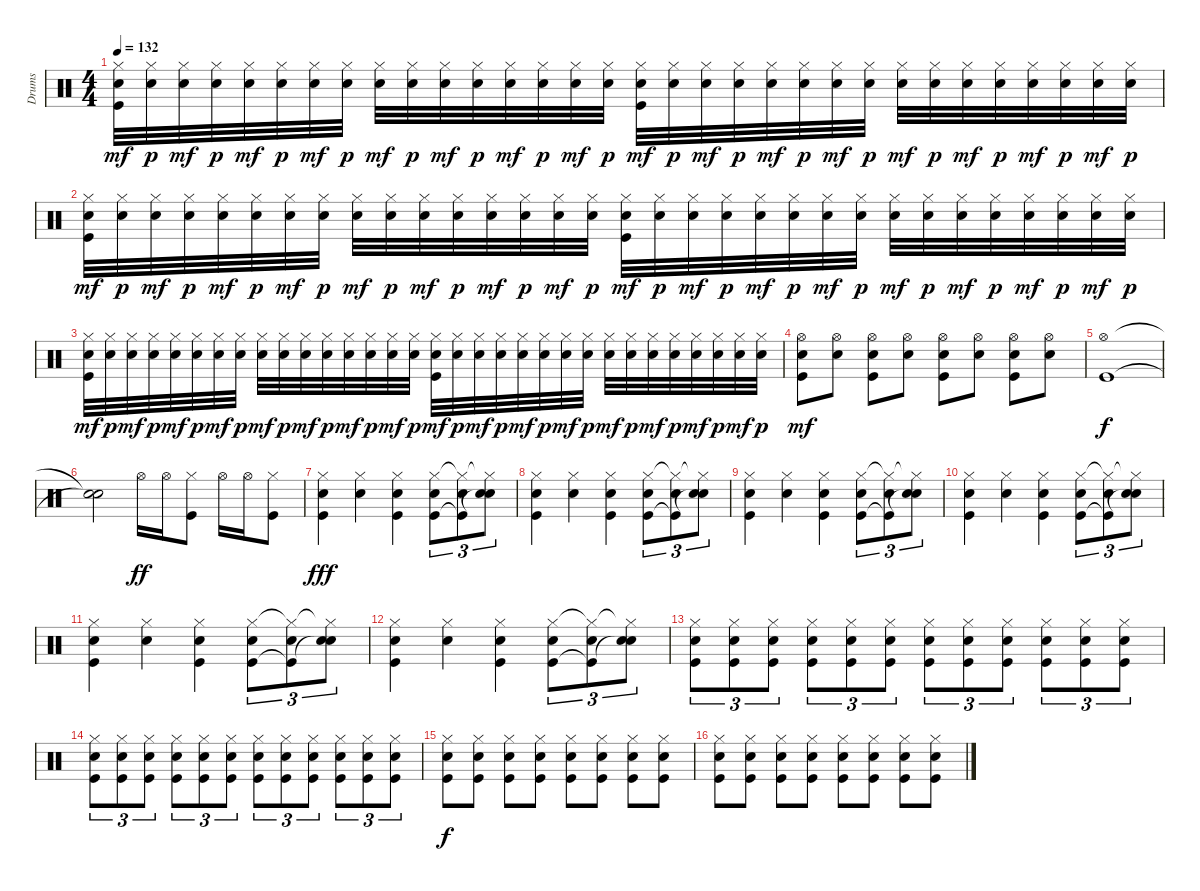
\track ("Drums" "Drums") {instrument percussion}
\staff {score}
\articulation defaults
\ts (4 4)
\tempo 132
\clef neutral
\ks c
("Hi-Hat (closed)" "Snare (hit) 2" "Kick (hit)").32{dy mf} ("Hi-Hat (closed)" "Snare (hit) 2").32{dy p} ("Hi-Hat (closed)" "Snare (hit) 2").32{dy mf} ("Hi-Hat (closed)" "Snare (hit) 2").32{dy p} ("Hi-Hat (closed)" "Snare (hit) 2").32{dy mf} ("Hi-Hat (closed)" "Snare (hit) 2").32{dy p} ("Hi-Hat (closed)" "Snare (hit) 2").32{dy mf} ("Hi-Hat (closed)" "Snare (hit) 2").32{dy p} ("Hi-Hat (closed)" "Snare (hit) 2").32{dy mf} ("Hi-Hat (closed)" "Snare (hit) 2").32{dy p} ("Hi-Hat (closed)" "Snare (hit) 2").32{dy mf} ("Hi-Hat (closed)" "Snare (hit) 2").32{dy p} ("Hi-Hat (closed)" "Snare (hit) 2").32{dy mf} ("Hi-Hat (closed)" "Snare (hit) 2").32{dy p} ("Hi-Hat (closed)" "Snare (hit) 2").32{dy mf} ("Hi-Hat (closed)" "Snare (hit) 2").32{dy p} ("Hi-Hat (closed)" "Snare (hit) 2" "Kick (hit)").32{dy mf} ("Hi-Hat (closed)" "Snare (hit) 2").32{dy p} ("Hi-Hat (closed)" "Snare (hit) 2").32{dy mf} ("Hi-Hat (closed)" "Snare (hit) 2").32{dy p} ("Hi-Hat (closed)" "Snare (hit) 2").32{dy mf} ("Hi-Hat (closed)" "Snare (hit) 2").32{dy p} ("Hi-Hat (closed)" "Snare (hit) 2").32{dy mf} ("Hi-Hat (closed)" "Snare (hit) 2").32{dy p} ("Hi-Hat (closed)" "Snare (hit) 2").32{dy mf} ("Hi-Hat (closed)" "Snare (hit) 2").32{dy p} ("Hi-Hat (closed)" "Snare (hit) 2").32{dy mf} ("Hi-Hat (closed)" "Snare (hit) 2").32{dy p} ("Hi-Hat (closed)" "Snare (hit) 2").32{dy mf} ("Hi-Hat (closed)" "Snare (hit) 2").32{dy p} ("Hi-Hat (closed)" "Snare (hit) 2").32{dy mf} ("Hi-Hat (closed)" "Snare (hit) 2").32{dy p} |
("Hi-Hat (closed)" "Snare (hit) 2" "Kick (hit)").32{dy mf} ("Hi-Hat (closed)" "Snare (hit) 2").32{dy p} ("Hi-Hat (closed)" "Snare (hit) 2").32{dy mf} ("Hi-Hat (closed)" "Snare (hit) 2").32{dy p} ("Hi-Hat (closed)" "Snare (hit) 2").32{dy mf} ("Hi-Hat (closed)" "Snare (hit) 2").32{dy p} ("Hi-Hat (closed)" "Snare (hit) 2").32{dy mf} ("Hi-Hat (closed)" "Snare (hit) 2").32{dy p} ("Hi-Hat (closed)" "Snare (hit) 2").32{dy mf} ("Hi-Hat (closed)" "Snare (hit) 2").32{dy p} ("Hi-Hat (closed)" "Snare (hit) 2").32{dy mf} ("Hi-Hat (closed)" "Snare (hit) 2").32{dy p} ("Hi-Hat (closed)" "Snare (hit) 2").32{dy mf} ("Hi-Hat (closed)" "Snare (hit) 2").32{dy p} ("Hi-Hat (closed)" "Snare (hit) 2").32{dy mf} ("Hi-Hat (closed)" "Snare (hit) 2").32{dy p} ("Hi-Hat (closed)" "Snare (hit) 2" "Kick (hit)").32{dy mf} ("Hi-Hat (closed)" "Snare (hit) 2").32{dy p} ("Hi-Hat (closed)" "Snare (hit) 2").32{dy mf} ("Hi-Hat (closed)" "Snare (hit) 2").32{dy p} ("Hi-Hat (closed)" "Snare (hit) 2").32{dy mf} ("Hi-Hat (closed)" "Snare (hit) 2").32{dy p} ("Hi-Hat (closed)" "Snare (hit) 2").32{dy mf} ("Hi-Hat (closed)" "Snare (hit) 2").32{dy p} ("Hi-Hat (closed)" "Snare (hit) 2").32{dy mf} ("Hi-Hat (closed)" "Snare (hit) 2").32{dy p} ("Hi-Hat (closed)" "Snare (hit) 2").32{dy mf} ("Hi-Hat (closed)" "Snare (hit) 2").32{dy p} ("Hi-Hat (closed)" "Snare (hit) 2").32{dy mf} ("Hi-Hat (closed)" "Snare (hit) 2").32{dy p} ("Hi-Hat (closed)" "Snare (hit) 2").32{dy mf} ("Hi-Hat (closed)" "Snare (hit) 2").32{dy p} |
("Hi-Hat (closed)" "Snare (hit) 2" "Kick (hit)").32{dy mf} ("Hi-Hat (closed)" "Snare (hit) 2").32{dy p} ("Hi-Hat (closed)" "Snare (hit) 2").32{dy mf} ("Hi-Hat (closed)" "Snare (hit) 2").32{dy p} ("Hi-Hat (closed)" "Snare (hit) 2").32{dy mf} ("Hi-Hat (closed)" "Snare (hit) 2").32{dy p} ("Hi-Hat (closed)" "Snare (hit) 2").32{dy mf} ("Hi-Hat (closed)" "Snare (hit) 2").32{dy p} ("Hi-Hat (closed)" "Snare (hit) 2").32{dy mf} ("Hi-Hat (closed)" "Snare (hit) 2").32{dy p} ("Hi-Hat (closed)" "Snare (hit) 2").32{dy mf} ("Hi-Hat (closed)" "Snare (hit) 2").32{dy p} ("Hi-Hat (closed)" "Snare (hit) 2").32{dy mf} ("Hi-Hat (closed)" "Snare (hit) 2").32{dy p} ("Hi-Hat (closed)" "Snare (hit) 2").32{dy mf} ("Hi-Hat (closed)" "Snare (hit) 2").32{dy p} ("Hi-Hat (closed)" "Snare (hit) 2" "Kick (hit)").32{dy mf} ("Hi-Hat (closed)" "Snare (hit) 2").32{dy p} ("Hi-Hat (closed)" "Snare (hit) 2").32{dy mf} ("Hi-Hat (closed)" "Snare (hit) 2").32{dy p} ("Hi-Hat (closed)" "Snare (hit) 2").32{dy mf} ("Hi-Hat (closed)" "Snare (hit) 2").32{dy p} ("Hi-Hat (closed)" "Snare (hit) 2").32{dy mf} ("Hi-Hat (closed)" "Snare (hit) 2").32{dy p} ("Hi-Hat (closed)" "Snare (hit) 2").32{dy mf} ("Hi-Hat (closed)" "Snare (hit) 2").32{dy p} ("Hi-Hat (closed)" "Snare (hit) 2").32{dy mf} ("Hi-Hat (closed)" "Snare (hit) 2").32{dy p} ("Hi-Hat (closed)" "Snare (hit) 2").32{dy mf} ("Hi-Hat (closed)" "Snare (hit) 2").32{dy p} ("Hi-Hat (closed)" "Snare (hit) 2").32{dy mf} ("Hi-Hat (closed)" "Snare (hit) 2").32{dy p} |
("Hi-Hat (open)" "Snare (hit) 2" "Kick (hit)").8{dy mf} ("Hi-Hat (open)" "Snare (hit) 2").8 ("Hi-Hat (open)" "Snare (hit) 2" "Kick (hit)").8 ("Hi-Hat (open)" "Snare (hit) 2").8 ("Hi-Hat (open)" "Snare (hit) 2" "Kick (hit)").8 ("Hi-Hat (open)" "Snare (hit) 2").8 ("Hi-Hat (open)" "Snare (hit) 2" "Kick (hit)").8 ("Hi-Hat (open)" "Snare (hit) 2").8 |
("Hi-Hat (open)" "Kick (hit)").1{dy f} |
("Snare (hit)"{t} "Snare (hit)"{t}).2 "Hi-Hat (open)".16{dy ff} "Hi-Hat (open)".16 ("Hi-Hat (closed)" "Kick (hit)").8 "Hi-Hat (open)".16 "Hi-Hat (open)".16 ("Hi-Hat (closed)" "Kick (hit)").8 |
("Hi-Hat (closed)" "Snare (hit) 2" "Kick (hit)").4{dy fff} ("Hi-Hat (closed)" "Snare (hit) 2").4 ("Hi-Hat (closed)" "Snare (hit) 2" "Kick (hit)").4 ("Hi-Hat (closed)" "Snare (hit) 2" "Kick (hit)").8{tu (3 2)} ("Hi-Hat (closed)"{t} "Snare (hit) 2" "Kick (hit)"{t}).8{tu (3 2)} ("Hi-Hat (closed)"{t} "Snare (hit) 2" "Snare (hit)"{t}).8{tu (3 2)} |
("Hi-Hat (closed)" "Snare (hit) 2" "Kick (hit)").4 ("Hi-Hat (closed)" "Snare (hit) 2").4 ("Hi-Hat (closed)" "Snare (hit) 2" "Kick (hit)").4 ("Hi-Hat (closed)" "Snare (hit) 2" "Kick (hit)").8{tu (3 2)} ("Hi-Hat (closed)"{t} "Snare (hit) 2" "Kick (hit)"{t}).8{tu (3 2)} ("Hi-Hat (closed)"{t} "Snare (hit) 2" "Snare (hit)"{t}).8{tu (3 2)} |
("Hi-Hat (closed)" "Snare (hit) 2" "Kick (hit)").4 ("Hi-Hat (closed)" "Snare (hit) 2").4 ("Hi-Hat (closed)" "Snare (hit) 2" "Kick (hit)").4 ("Hi-Hat (closed)" "Snare (hit) 2" "Kick (hit)").8{tu (3 2)} ("Hi-Hat (closed)"{t} "Snare (hit) 2" "Kick (hit)"{t}).8{tu (3 2)} ("Hi-Hat (closed)"{t} "Snare (hit) 2" "Snare (hit)"{t}).8{tu (3 2)} |
("Hi-Hat (closed)" "Snare (hit) 2" "Kick (hit)").4 ("Hi-Hat (closed)" "Snare (hit) 2").4 ("Hi-Hat (closed)" "Snare (hit) 2" "Kick (hit)").4 ("Hi-Hat (closed)" "Snare (hit) 2" "Kick (hit)").8{tu (3 2)} ("Hi-Hat (closed)"{t} "Snare (hit) 2" "Kick (hit)"{t}).8{tu (3 2)} ("Hi-Hat (closed)"{t} "Snare (hit) 2" "Snare (hit)"{t}).8{tu (3 2)} |
("Hi-Hat (closed)" "Snare (hit) 2" "Kick (hit)").4 ("Hi-Hat (closed)" "Snare (hit) 2").4 ("Hi-Hat (closed)" "Snare (hit) 2" "Kick (hit)").4 ("Hi-Hat (closed)" "Snare (hit) 2" "Kick (hit)").8{tu (3 2)} ("Hi-Hat (closed)"{t} "Snare (hit) 2" "Kick (hit)"{t}).8{tu (3 2)} ("Hi-Hat (closed)"{t} "Snare (hit) 2" "Snare (hit)"{t}).8{tu (3 2)} |
("Hi-Hat (closed)" "Snare (hit) 2" "Kick (hit)").4 ("Hi-Hat (closed)" "Snare (hit) 2").4 ("Hi-Hat (closed)" "Snare (hit) 2" "Kick (hit)").4 ("Hi-Hat (closed)" "Snare (hit) 2" "Kick (hit)").8{tu (3 2)} ("Hi-Hat (closed)"{t} "Snare (hit) 2" "Kick (hit)"{t}).8{tu (3 2)} ("Hi-Hat (closed)"{t} "Snare (hit) 2" "Snare (hit)"{t}).8{tu (3 2)} |
("Hi-Hat (closed)" "Snare (hit) 2" "Kick (hit)").8{tu (3 2)} ("Hi-Hat (closed)" "Snare (hit) 2" "Kick (hit)").8{tu (3 2)} ("Hi-Hat (closed)" "Snare (hit) 2" "Kick (hit)").8{tu (3 2)} ("Hi-Hat (closed)" "Snare (hit) 2" "Kick (hit)").8{tu (3 2)} ("Hi-Hat (closed)" "Snare (hit) 2" "Kick (hit)").8{tu (3 2)} ("Hi-Hat (closed)" "Snare (hit) 2" "Kick (hit)").8{tu (3 2)} ("Hi-Hat (closed)" "Snare (hit) 2" "Kick (hit)").8{tu (3 2)} ("Hi-Hat (closed)" "Snare (hit) 2" "Kick (hit)").8{tu (3 2)} ("Hi-Hat (closed)" "Snare (hit) 2" "Kick (hit)").8{tu (3 2)} ("Hi-Hat (closed)" "Snare (hit) 2" "Kick (hit)").8{tu (3 2)} ("Hi-Hat (closed)" "Snare (hit) 2" "Kick (hit)").8{tu (3 2)} ("Hi-Hat (closed)" "Snare (hit) 2" "Kick (hit)").8{tu (3 2)} |
("Hi-Hat (closed)" "Snare (hit) 2" "Kick (hit)").8{tu (3 2)} ("Hi-Hat (closed)" "Snare (hit) 2" "Kick (hit)").8{tu (3 2)} ("Hi-Hat (closed)" "Snare (hit) 2" "Kick (hit)").8{tu (3 2)} ("Hi-Hat (closed)" "Snare (hit) 2" "Kick (hit)").8{tu (3 2)} ("Hi-Hat (closed)" "Snare (hit) 2" "Kick (hit)").8{tu (3 2)} ("Hi-Hat (closed)" "Snare (hit) 2" "Kick (hit)").8{tu (3 2)} ("Hi-Hat (closed)" "Snare (hit) 2" "Kick (hit)").8{tu (3 2)} ("Hi-Hat (closed)" "Snare (hit) 2" "Kick (hit)").8{tu (3 2)} ("Hi-Hat (closed)" "Snare (hit) 2" "Kick (hit)").8{tu (3 2)} ("Hi-Hat (closed)" "Snare (hit) 2" "Kick (hit)").8{tu (3 2)} ("Hi-Hat (closed)" "Snare (hit) 2" "Kick (hit)").8{tu (3 2)} ("Hi-Hat (closed)" "Snare (hit) 2" "Kick (hit)").8{tu (3 2)} |
("Hi-Hat (closed)" "Snare (hit) 2" "Kick (hit)").8{dy f} ("Hi-Hat (closed)" "Snare (hit) 2" "Kick (hit)").8 ("Hi-Hat (closed)" "Snare (hit) 2" "Kick (hit)").8 ("Hi-Hat (closed)" "Snare (hit) 2" "Kick (hit)").8 ("Hi-Hat (closed)" "Snare (hit) 2" "Kick (hit)").8 ("Hi-Hat (closed)" "Snare (hit) 2" "Kick (hit)").8 ("Hi-Hat (closed)" "Snare (hit) 2" "Kick (hit)").8 ("Hi-Hat (closed)" "Snare (hit) 2" "Kick (hit)").8 |
("Hi-Hat (closed)" "Snare (hit) 2" "Kick (hit)").8 ("Hi-Hat (closed)" "Snare (hit) 2" "Kick (hit)").8 ("Hi-Hat (closed)" "Snare (hit) 2" "Kick (hit)").8 ("Hi-Hat (closed)" "Snare (hit) 2" "Kick (hit)").8 ("Hi-Hat (closed)" "Snare (hit) 2" "Kick (hit)").8 ("Hi-Hat (closed)" "Snare (hit) 2" "Kick (hit)").8 ("Hi-Hat (closed)" "Snare (hit) 2" "Kick (hit)").8 ("Hi-Hat (closed)" "Snare (hit) 2" "Kick (hit)").8
